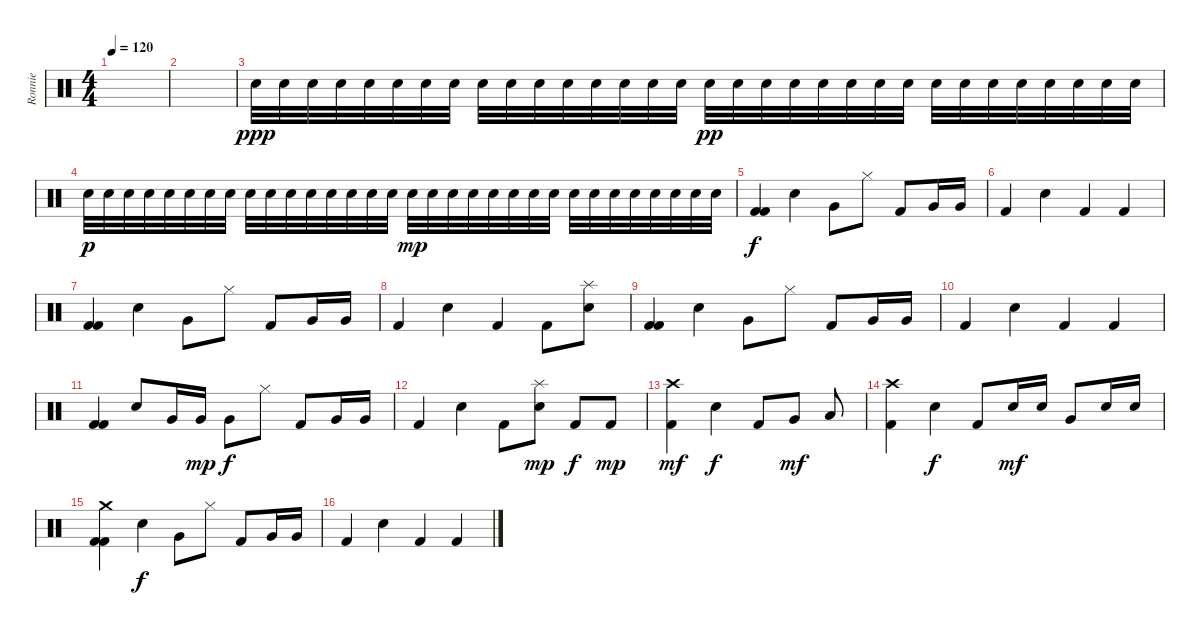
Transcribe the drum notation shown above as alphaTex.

\track ("Ronnie" "Ronnie") {instrument percussion}
\staff {score}
\articulation defaults
\ts (4 4)
\tempo 120
\clef neutral
\ks c
|
|
"Snare (hit) 2".32{dy ppp} "Snare (hit) 2".32 "Snare (hit) 2".32 "Snare (hit) 2".32 "Snare (hit) 2".32 "Snare (hit) 2".32 "Snare (hit) 2".32 "Snare (hit) 2".32 "Snare (hit) 2".32 "Snare (hit) 2".32 "Snare (hit) 2".32 "Snare (hit) 2".32 "Snare (hit) 2".32 "Snare (hit) 2".32 "Snare (hit) 2".32 "Snare (hit) 2".32 "Snare (hit) 2".32{dy pp} "Snare (hit) 2".32 "Snare (hit) 2".32 "Snare (hit) 2".32 "Snare (hit) 2".32 "Snare (hit) 2".32 "Snare (hit) 2".32 "Snare (hit) 2".32 "Snare (hit) 2".32 "Snare (hit) 2".32 "Snare (hit) 2".32 "Snare (hit) 2".32 "Snare (hit) 2".32 "Snare (hit) 2".32 "Snare (hit) 2".32 "Snare (hit) 2".32 |
"Snare (hit) 2".32{dy p} "Snare (hit) 2".32 "Snare (hit) 2".32 "Snare (hit) 2".32 "Snare (hit) 2".32 "Snare (hit) 2".32 "Snare (hit) 2".32 "Snare (hit) 2".32 "Snare (hit) 2".32 "Snare (hit) 2".32 "Snare (hit) 2".32 "Snare (hit) 2".32 "Snare (hit) 2".32 "Snare (hit) 2".32 "Snare (hit) 2".32 "Snare (hit) 2".32 "Snare (hit) 2".32{dy mp} "Snare (hit) 2".32 "Snare (hit) 2".32 "Snare (hit) 2".32 "Snare (hit) 2".32 "Snare (hit) 2".32 "Snare (hit) 2".32 "Snare (hit) 2".32 "Snare (hit) 2".32 "Snare (hit) 2".32 "Snare (hit) 2".32 "Snare (hit) 2".32 "Snare (hit) 2".32 "Snare (hit) 2".32 "Snare (hit) 2".32 "Snare (hit) 2".32 |
("Kick (hit) 2" "Kick (hit) 2").4{dy f} "Snare (hit) 2".4 "Very Low Tom (hit)".8 "Hi-Hat (closed)".8 "Kick (hit) 2".8 "Very Low Tom (hit)".16 "Very Low Tom (hit)".16 |
"Kick (hit) 2".4 "Snare (hit) 2".4 "Kick (hit) 2".4 "Kick (hit) 2".4 |
("Kick (hit) 2" "Kick (hit) 2").4 "Snare (hit) 2".4 "Very Low Tom (hit)".8 "Hi-Hat (closed)".8 "Kick (hit) 2".8 "Very Low Tom (hit)".16 "Very Low Tom (hit)".16 |
"Kick (hit) 2".4 "Snare (hit) 2".4 "Kick (hit) 2".4 "Kick (hit) 2".8 ("Splash (hit)" "Snare (hit) 2").8 |
("Kick (hit) 2" "Kick (hit) 2").4 "Snare (hit) 2".4 "Very Low Tom (hit)".8 "Hi-Hat (closed)".8 "Kick (hit) 2".8 "Very Low Tom (hit)".16 "Very Low Tom (hit)".16 |
"Kick (hit) 2".4 "Snare (hit) 2".4 "Kick (hit) 2".4 "Kick (hit) 2".4 |
("Kick (hit) 2" "Kick (hit) 2").4 "Snare (hit) 2".8 "Very Low Tom (hit)".16 "Very Low Tom (hit)".16{dy mp} "Very Low Tom (hit)".8{dy f} "Hi-Hat (closed)".8 "Kick (hit) 2".8 "Very Low Tom (hit)".16 "Very Low Tom (hit)".16 |
"Kick (hit) 2".4 "Snare (hit) 2".4 "Kick (hit) 2".8 ("Splash (hit)" "Snare (hit) 2").8{dy mp} "Kick (hit) 2".8{dy f} "Kick (hit) 2".8{dy mp} |
("Crash high (hit)" "Kick (hit) 2").4{dy mf} "Snare (hit) 2".4{dy f} "Kick (hit) 2".8 "Very Low Tom (hit)".8{dy mf} "Low Floor Tom (hit)".8 |
("Crash high (hit)" "Kick (hit) 2").4 "Snare (hit) 2".4{dy f} "Kick (hit) 2".8 "Snare (hit) 2".16{dy mf} "Snare (hit) 2".16 "Very Low Tom (hit)".8 "Snare (hit) 2".16 "Snare (hit) 2".16 |
("Crash medium (hit)" "Kick (hit) 2" "Kick (hit) 2").4 "Snare (hit) 2".4{dy f} "Very Low Tom (hit)".8 "Hi-Hat (closed)".8 "Kick (hit) 2".8 "Very Low Tom (hit)".16 "Very Low Tom (hit)".16 |
"Kick (hit) 2".4 "Snare (hit) 2".4 "Kick (hit) 2".4 "Kick (hit) 2".4
